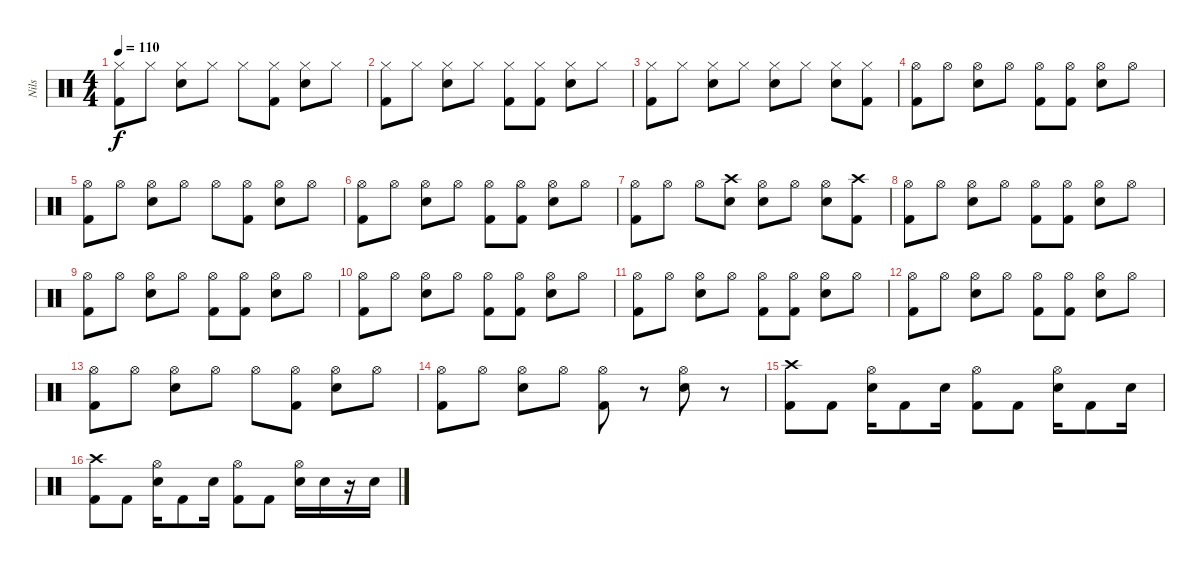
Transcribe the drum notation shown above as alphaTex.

\track ("Nils" "Nils") {instrument percussion}
\staff {score}
\articulation defaults
\ts (4 4)
\tempo 110
\clef neutral
\ks c
("Hi-Hat (closed)" "Kick (hit) 2").8{dy f} "Hi-Hat (closed)".8 ("Hi-Hat (closed)" "Snare (hit) 2").8 "Hi-Hat (closed)".8 "Hi-Hat (closed)".8 ("Hi-Hat (closed)" "Kick (hit) 2").8 ("Hi-Hat (closed)" "Snare (hit) 2").8 "Hi-Hat (closed)".8 |
("Hi-Hat (closed)" "Kick (hit) 2").8 "Hi-Hat (closed)".8 ("Hi-Hat (closed)" "Snare (hit) 2").8 "Hi-Hat (closed)".8 ("Hi-Hat (closed)" "Kick (hit) 2").8 ("Hi-Hat (closed)" "Kick (hit) 2").8 ("Hi-Hat (closed)" "Snare (hit) 2").8 "Hi-Hat (closed)".8 |
("Hi-Hat (closed)" "Kick (hit) 2").8 "Hi-Hat (closed)".8 ("Hi-Hat (closed)" "Snare (hit) 2").8 "Hi-Hat (closed)".8 ("Hi-Hat (closed)" "Snare (hit) 2").8 "Hi-Hat (closed)".8 ("Hi-Hat (closed)" "Snare (hit) 2").8 ("Hi-Hat (closed)" "Kick (hit) 2").8 |
("Hi-Hat (open)" "Kick (hit) 2").8 "Hi-Hat (open)".8 ("Hi-Hat (open)" "Snare (hit) 2").8 "Hi-Hat (open)".8 ("Hi-Hat (open)" "Kick (hit) 2").8 ("Hi-Hat (open)" "Kick (hit) 2").8 ("Hi-Hat (open)" "Snare (hit) 2").8 "Hi-Hat (open)".8 |
("Hi-Hat (open)" "Kick (hit) 2").8 "Hi-Hat (open)".8 ("Hi-Hat (open)" "Snare (hit) 2").8 "Hi-Hat (open)".8 "Hi-Hat (open)".8 ("Hi-Hat (open)" "Kick (hit) 2").8 ("Hi-Hat (open)" "Snare (hit) 2").8 "Hi-Hat (open)".8 |
("Hi-Hat (open)" "Kick (hit) 2").8 "Hi-Hat (open)".8 ("Hi-Hat (open)" "Snare (hit) 2").8 "Hi-Hat (open)".8 ("Hi-Hat (open)" "Kick (hit) 2").8 ("Hi-Hat (open)" "Kick (hit) 2").8 ("Hi-Hat (open)" "Snare (hit) 2").8 "Hi-Hat (open)".8 |
("Hi-Hat (open)" "Kick (hit) 2").8 "Hi-Hat (open)".8 "Hi-Hat (open)".8 ("Crash high (hit)" "Snare (hit) 2").8 ("Hi-Hat (open)" "Snare (hit) 2").8 "Hi-Hat (open)".8 ("Hi-Hat (open)" "Snare (hit) 2").8 ("Crash high (hit)" "Kick (hit) 2").8 |
("Hi-Hat (open)" "Kick (hit) 2").8 "Hi-Hat (open)".8 ("Hi-Hat (open)" "Snare (hit) 2").8 "Hi-Hat (open)".8 ("Hi-Hat (open)" "Kick (hit) 2").8 ("Hi-Hat (open)" "Kick (hit) 2").8 ("Hi-Hat (open)" "Snare (hit) 2").8 "Hi-Hat (open)".8 |
("Hi-Hat (open)" "Kick (hit) 2").8 "Hi-Hat (open)".8 ("Hi-Hat (open)" "Snare (hit) 2").8 "Hi-Hat (open)".8 ("Hi-Hat (open)" "Kick (hit) 2").8 ("Hi-Hat (open)" "Kick (hit) 2").8 ("Hi-Hat (open)" "Snare (hit) 2").8 "Hi-Hat (open)".8 |
("Hi-Hat (open)" "Kick (hit) 2").8 "Hi-Hat (open)".8 ("Hi-Hat (open)" "Snare (hit) 2").8 "Hi-Hat (open)".8 ("Hi-Hat (open)" "Kick (hit) 2").8 ("Hi-Hat (open)" "Kick (hit) 2").8 ("Hi-Hat (open)" "Snare (hit) 2").8 "Hi-Hat (open)".8 |
("Hi-Hat (open)" "Kick (hit) 2").8 "Hi-Hat (open)".8 ("Hi-Hat (open)" "Snare (hit) 2").8 "Hi-Hat (open)".8 ("Hi-Hat (open)" "Kick (hit) 2").8 ("Hi-Hat (open)" "Kick (hit) 2").8 ("Hi-Hat (open)" "Snare (hit) 2").8 "Hi-Hat (open)".8 |
("Hi-Hat (open)" "Kick (hit) 2").8 "Hi-Hat (open)".8 ("Hi-Hat (open)" "Snare (hit) 2").8 "Hi-Hat (open)".8 ("Hi-Hat (open)" "Kick (hit) 2").8 ("Hi-Hat (open)" "Kick (hit) 2").8 ("Hi-Hat (open)" "Snare (hit) 2").8 "Hi-Hat (open)".8 |
("Hi-Hat (open)" "Kick (hit) 2").8 "Hi-Hat (open)".8 ("Hi-Hat (open)" "Snare (hit) 2").8 "Hi-Hat (open)".8 "Hi-Hat (open)".8 ("Hi-Hat (open)" "Kick (hit) 2").8 ("Hi-Hat (open)" "Snare (hit) 2").8 "Hi-Hat (open)".8 |
("Hi-Hat (open)" "Kick (hit) 2").8 "Hi-Hat (open)".8 ("Hi-Hat (open)" "Snare (hit) 2").8 "Hi-Hat (open)".8 ("Hi-Hat (open)" "Kick (hit) 2").8 r.8 ("Hi-Hat (open)" "Snare (hit) 2").8 r.8 |
("Crash high (hit)" "Kick (hit) 2").8 "Kick (hit) 2".8 ("Hi-Hat (open)" "Snare (hit) 2").16 "Kick (hit) 2".8 "Snare (hit) 2".16 ("Hi-Hat (open)" "Kick (hit) 2").8 "Kick (hit) 2".8 ("Hi-Hat (open)" "Snare (hit) 2").16 "Kick (hit) 2".8 "Snare (hit) 2".16 |
("Crash high (hit)" "Kick (hit) 2").8 "Kick (hit) 2".8 ("Hi-Hat (open)" "Snare (hit) 2").16 "Kick (hit) 2".8 "Snare (hit) 2".16 ("Hi-Hat (open)" "Kick (hit) 2").8 "Kick (hit) 2".8 ("Hi-Hat (open)" "Snare (hit) 2").16 "Snare (hit) 2".16 r.16 "Snare (hit) 2".16
